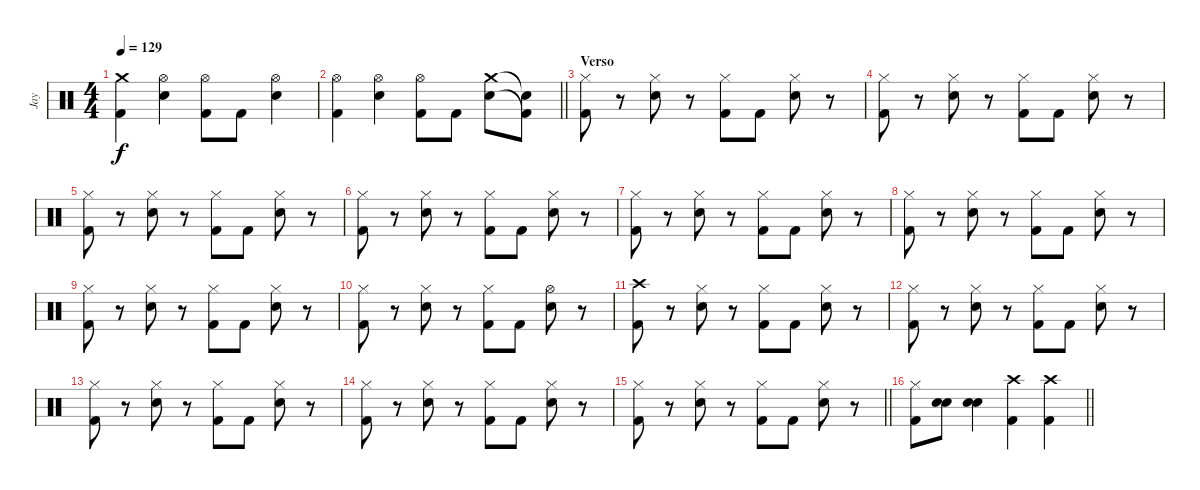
\track ("Jay" "Jay") {instrument percussion}
\staff {score}
\articulation defaults
\ts (4 4)
\tempo 129
\clef neutral
\ks c
("Crash medium (hit)" "Kick (hit) 2").4{dy f} ("Hi-Hat (open)" "Electric Snare (hit)").4 ("Hi-Hat (open)" "Kick (hit) 2").8 "Kick (hit) 2".8 ("Hi-Hat (open)" "Electric Snare (hit)").4 |
\barLineRight lightlight
("Hi-Hat (open)" "Kick (hit) 2").4 ("Hi-Hat (open)" "Electric Snare (hit)").4 ("Hi-Hat (open)" "Kick (hit) 2").8 "Kick (hit) 2".8 ("Crash medium (hit)" "Electric Snare (hit)").8 ("Snare (hit)"{t} "Kick (hit) 2"{t}).8 |
\section ("" "Verso")
("Hi-Hat (closed)" "Kick (hit) 2").8 r.8 ("Hi-Hat (closed)" "Electric Snare (hit)").8 r.8 ("Hi-Hat (closed)" "Kick (hit) 2").8 "Kick (hit) 2".8 ("Hi-Hat (closed)" "Electric Snare (hit)").8 r.8 |
("Hi-Hat (closed)" "Kick (hit) 2").8 r.8 ("Hi-Hat (closed)" "Electric Snare (hit)").8 r.8 ("Hi-Hat (closed)" "Kick (hit) 2").8 "Kick (hit) 2".8 ("Hi-Hat (closed)" "Electric Snare (hit)").8 r.8 |
("Hi-Hat (closed)" "Kick (hit) 2").8 r.8 ("Hi-Hat (closed)" "Electric Snare (hit)").8 r.8 ("Hi-Hat (closed)" "Kick (hit) 2").8 "Kick (hit) 2".8 ("Hi-Hat (closed)" "Electric Snare (hit)").8 r.8 |
("Hi-Hat (closed)" "Kick (hit) 2").8 r.8 ("Hi-Hat (closed)" "Electric Snare (hit)").8 r.8 ("Hi-Hat (closed)" "Kick (hit) 2").8 "Kick (hit) 2".8 ("Hi-Hat (closed)" "Electric Snare (hit)").8 r.8 |
("Hi-Hat (closed)" "Kick (hit) 2").8 r.8 ("Hi-Hat (closed)" "Electric Snare (hit)").8 r.8 ("Hi-Hat (closed)" "Kick (hit) 2").8 "Kick (hit) 2".8 ("Hi-Hat (closed)" "Electric Snare (hit)").8 r.8 |
("Hi-Hat (closed)" "Kick (hit) 2").8 r.8 ("Hi-Hat (closed)" "Electric Snare (hit)").8 r.8 ("Hi-Hat (closed)" "Kick (hit) 2").8 "Kick (hit) 2".8 ("Hi-Hat (closed)" "Electric Snare (hit)").8 r.8 |
("Hi-Hat (closed)" "Kick (hit) 2").8 r.8 ("Hi-Hat (closed)" "Electric Snare (hit)").8 r.8 ("Hi-Hat (closed)" "Kick (hit) 2").8 "Kick (hit) 2".8 ("Hi-Hat (closed)" "Electric Snare (hit)").8 r.8 |
("Hi-Hat (closed)" "Kick (hit) 2").8 r.8 ("Hi-Hat (closed)" "Electric Snare (hit)").8 r.8 ("Hi-Hat (closed)" "Kick (hit) 2").8 "Kick (hit) 2".8 ("Hi-Hat (open)" "Electric Snare (hit)").8 r.8 |
("Crash high (hit)" "Kick (hit) 2").8 r.8 ("Hi-Hat (closed)" "Electric Snare (hit)").8 r.8 ("Hi-Hat (closed)" "Kick (hit) 2").8 "Kick (hit) 2".8 ("Hi-Hat (closed)" "Electric Snare (hit)").8 r.8 |
("Hi-Hat (closed)" "Kick (hit) 2").8 r.8 ("Hi-Hat (closed)" "Electric Snare (hit)").8 r.8 ("Hi-Hat (closed)" "Kick (hit) 2").8 "Kick (hit) 2".8 ("Hi-Hat (closed)" "Electric Snare (hit)").8 r.8 |
("Hi-Hat (closed)" "Kick (hit) 2").8 r.8 ("Hi-Hat (closed)" "Electric Snare (hit)").8 r.8 ("Hi-Hat (closed)" "Kick (hit) 2").8 "Kick (hit) 2".8 ("Hi-Hat (closed)" "Electric Snare (hit)").8 r.8 |
("Hi-Hat (closed)" "Kick (hit) 2").8 r.8 ("Hi-Hat (closed)" "Electric Snare (hit)").8 r.8 ("Hi-Hat (closed)" "Kick (hit) 2").8 "Kick (hit) 2".8 ("Hi-Hat (closed)" "Electric Snare (hit)").8 r.8 |
\barLineRight lightlight
("Hi-Hat (closed)" "Kick (hit) 2").8 r.8 ("Hi-Hat (closed)" "Electric Snare (hit)").8 r.8 ("Hi-Hat (closed)" "Kick (hit) 2").8 "Kick (hit) 2".8 ("Hi-Hat (closed)" "Electric Snare (hit)").8 r.8 |
\section ("" "")
\barLineRight lightlight
("Hi-Hat (closed)" "Kick (hit) 2").8 ("Electric Snare (hit)" "Electric Snare (hit)").8{bd 60} ("Electric Snare (hit)" "Electric Snare (hit)").4{bd 60} ("Crash high (hit)" "Kick (hit) 2").4 ("Crash high (hit)" "Kick (hit) 2").4
